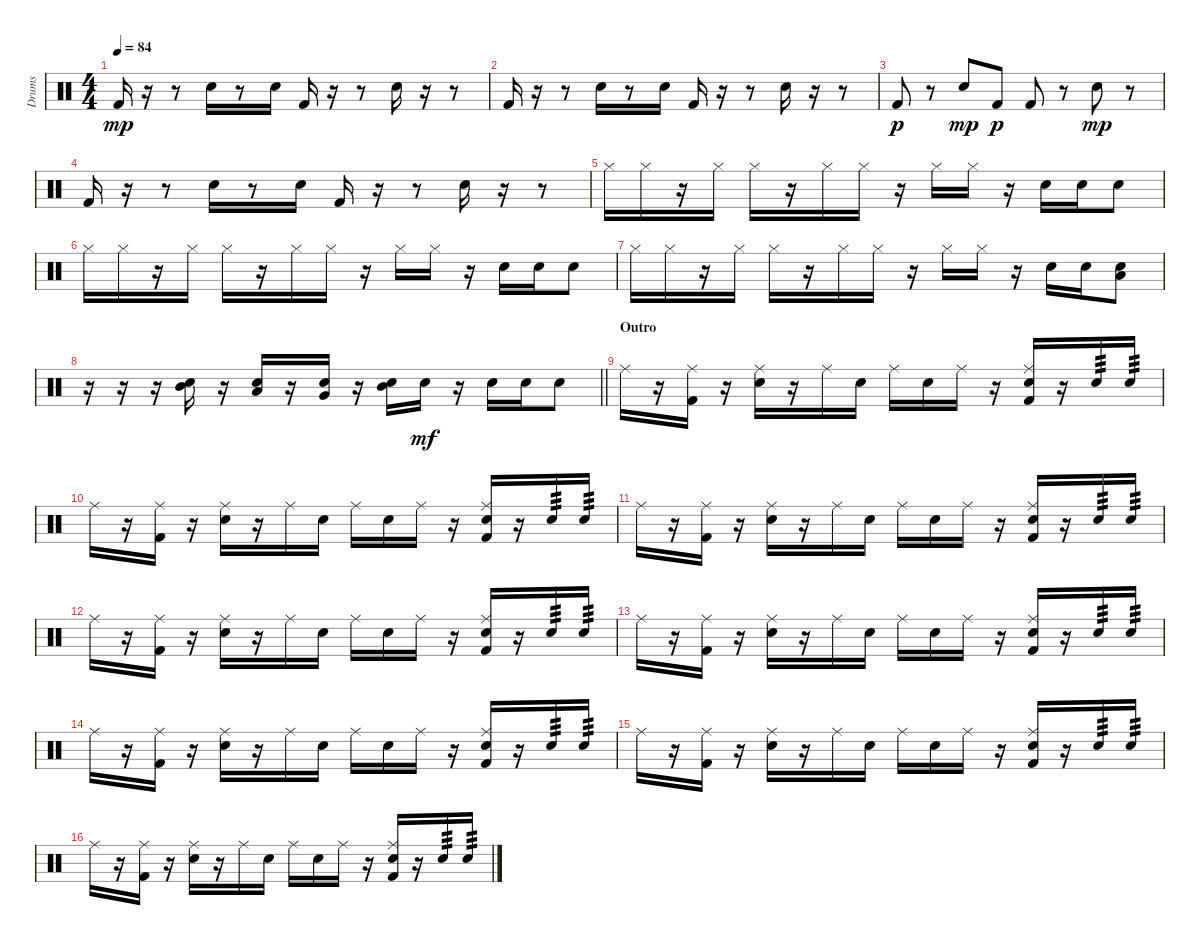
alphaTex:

\track ("Drums" "Drums") {instrument percussion}
\staff {score}
\articulation defaults
\ts (4 4)
\tempo 84
\clef neutral
\ks c "Kick (hit) 2".16{dy mp}
r.16 r.8 "Snare (hit) 2".16 r.8 "Snare (hit) 2".16 "Kick (hit) 2".16 r.16 r.8 "Snare (hit) 2".16 r.16 r.8 |
"Kick (hit) 2".16 r.16 r.8 "Snare (hit) 2".16 r.8 "Snare (hit) 2".16 "Kick (hit) 2".16 r.16 r.8 "Snare (hit) 2".16 r.16 r.8 |
"Kick (hit) 2".8{dy p} r.8 "Snare (hit) 2".8{dy mp} "Kick (hit) 2".8{dy p} "Kick (hit) 2".8 r.8 "Snare (hit) 2".8{dy mp} r.8 |
"Kick (hit) 2".16 r.16 r.8 "Snare (hit) 2".16 r.8 "Snare (hit) 2".16 "Kick (hit) 2".16 r.16 r.8 "Snare (hit) 2".16 r.16 r.8 |
"Hi-Hat (closed)".16 "Hi-Hat (closed)".16 r.16 "Hi-Hat (closed)".16 "Hi-Hat (closed)".16 r.16 "Hi-Hat (closed)".16 "Hi-Hat (closed)".16 r.16 "Hi-Hat (closed)".16 "Hi-Hat (closed)".16 r.16 "Snare (hit) 2".16 "Snare (hit) 2".16 "Snare (hit) 2".8 |
"Hi-Hat (closed)".16 "Hi-Hat (closed)".16 r.16 "Hi-Hat (closed)".16 "Hi-Hat (closed)".16 r.16 "Hi-Hat (closed)".16 "Hi-Hat (closed)".16 r.16 "Hi-Hat (closed)".16 "Hi-Hat (closed)".16 r.16 "Snare (hit) 2".16 "Snare (hit) 2".16 "Snare (hit) 2".8 |
"Hi-Hat (closed)".16 "Hi-Hat (closed)".16 r.16 "Hi-Hat (closed)".16 "Hi-Hat (closed)".16 r.16 "Hi-Hat (closed)".16 "Hi-Hat (closed)".16 r.16 "Hi-Hat (closed)".16 "Hi-Hat (closed)".16 r.16 "Snare (hit) 2".16 "Snare (hit) 2".16 ("Low Tom (hit)" "Snare (hit) 2").8 |
\barLineRight lightlight
r.16 r.16 r.16 ("Mid Tom (hit)" "Snare (hit) 2").16 r.16 ("Low Tom (hit)" "Snare (hit) 2").16 r.16 ("Very Low Tom (hit)" "Snare (hit) 2").16 r.16 ("Mid Tom (hit)" "Snare (hit) 2").16 "Snare (hit) 2".16{dy mf} r.16 "Snare (hit) 2".16 "Snare (hit) 2".16 "Snare (hit) 2".8 |
\section ("" "Outro")
"Ride (middle)".16{volume 7} r.16 ("Ride (middle)" "Kick (hit) 2").16 r.16 ("Ride (middle)" "Electric Snare (hit)").16 r.16 "Ride (middle)".16 "Electric Snare (hit)".16 "Ride (middle)".16 "Electric Snare (hit)".16 "Ride (middle)".16 r.16 ("Ride (middle)" "Electric Snare (hit)" "Kick (hit) 2").16 r.16 "Snare (hit) 2".16{tp 3} "Snare (hit) 2".16{tp 3} |
"Ride (middle)".16 r.16 ("Ride (middle)" "Kick (hit) 2").16 r.16 ("Ride (middle)" "Electric Snare (hit)").16 r.16 "Ride (middle)".16 "Electric Snare (hit)".16 "Ride (middle)".16 "Electric Snare (hit)".16 "Ride (middle)".16 r.16 ("Ride (middle)" "Electric Snare (hit)" "Kick (hit) 2").16 r.16 "Snare (hit) 2".16{tp 3} "Snare (hit) 2".16{tp 3} |
"Ride (middle)".16 r.16 ("Ride (middle)" "Kick (hit) 2").16 r.16 ("Ride (middle)" "Electric Snare (hit)").16 r.16 "Ride (middle)".16 "Electric Snare (hit)".16 "Ride (middle)".16 "Electric Snare (hit)".16 "Ride (middle)".16 r.16 ("Ride (middle)" "Electric Snare (hit)" "Kick (hit) 2").16 r.16 "Snare (hit) 2".16{tp 3} "Snare (hit) 2".16{tp 3} |
"Ride (middle)".16 r.16 ("Ride (middle)" "Kick (hit) 2").16 r.16 ("Ride (middle)" "Electric Snare (hit)").16 r.16 "Ride (middle)".16 "Electric Snare (hit)".16 "Ride (middle)".16 "Electric Snare (hit)".16 "Ride (middle)".16 r.16 ("Ride (middle)" "Electric Snare (hit)" "Kick (hit) 2").16 r.16 "Snare (hit) 2".16{tp 3} "Snare (hit) 2".16{tp 3} |
"Ride (middle)".16 r.16 ("Ride (middle)" "Kick (hit) 2").16 r.16 ("Ride (middle)" "Electric Snare (hit)").16 r.16 "Ride (middle)".16 "Electric Snare (hit)".16 "Ride (middle)".16 "Electric Snare (hit)".16 "Ride (middle)".16 r.16 ("Ride (middle)" "Electric Snare (hit)" "Kick (hit) 2").16 r.16 "Snare (hit) 2".16{tp 3} "Snare (hit) 2".16{tp 3} |
"Ride (middle)".16 r.16 ("Ride (middle)" "Kick (hit) 2").16 r.16 ("Ride (middle)" "Electric Snare (hit)").16 r.16 "Ride (middle)".16 "Electric Snare (hit)".16 "Ride (middle)".16 "Electric Snare (hit)".16 "Ride (middle)".16 r.16 ("Ride (middle)" "Electric Snare (hit)" "Kick (hit) 2").16 r.16 "Snare (hit) 2".16{tp 3} "Snare (hit) 2".16{tp 3} |
"Ride (middle)".16{volume 0} r.16 ("Ride (middle)" "Kick (hit) 2").16 r.16 ("Ride (middle)" "Electric Snare (hit)").16 r.16 "Ride (middle)".16 "Electric Snare (hit)".16 "Ride (middle)".16 "Electric Snare (hit)".16 "Ride (middle)".16 r.16 ("Ride (middle)" "Electric Snare (hit)" "Kick (hit) 2").16 r.16 "Snare (hit) 2".16{tp 3} "Snare (hit) 2".16{tp 3} |
"Ride (middle)".16 r.16 ("Ride (middle)" "Kick (hit) 2").16 r.16 ("Ride (middle)" "Electric Snare (hit)").16 r.16 "Ride (middle)".16 "Electric Snare (hit)".16 "Ride (middle)".16 "Electric Snare (hit)".16 "Ride (middle)".16 r.16 ("Ride (middle)" "Electric Snare (hit)" "Kick (hit) 2").16 r.16 "Snare (hit) 2".16{tp 3} "Snare (hit) 2".16{tp 3}
